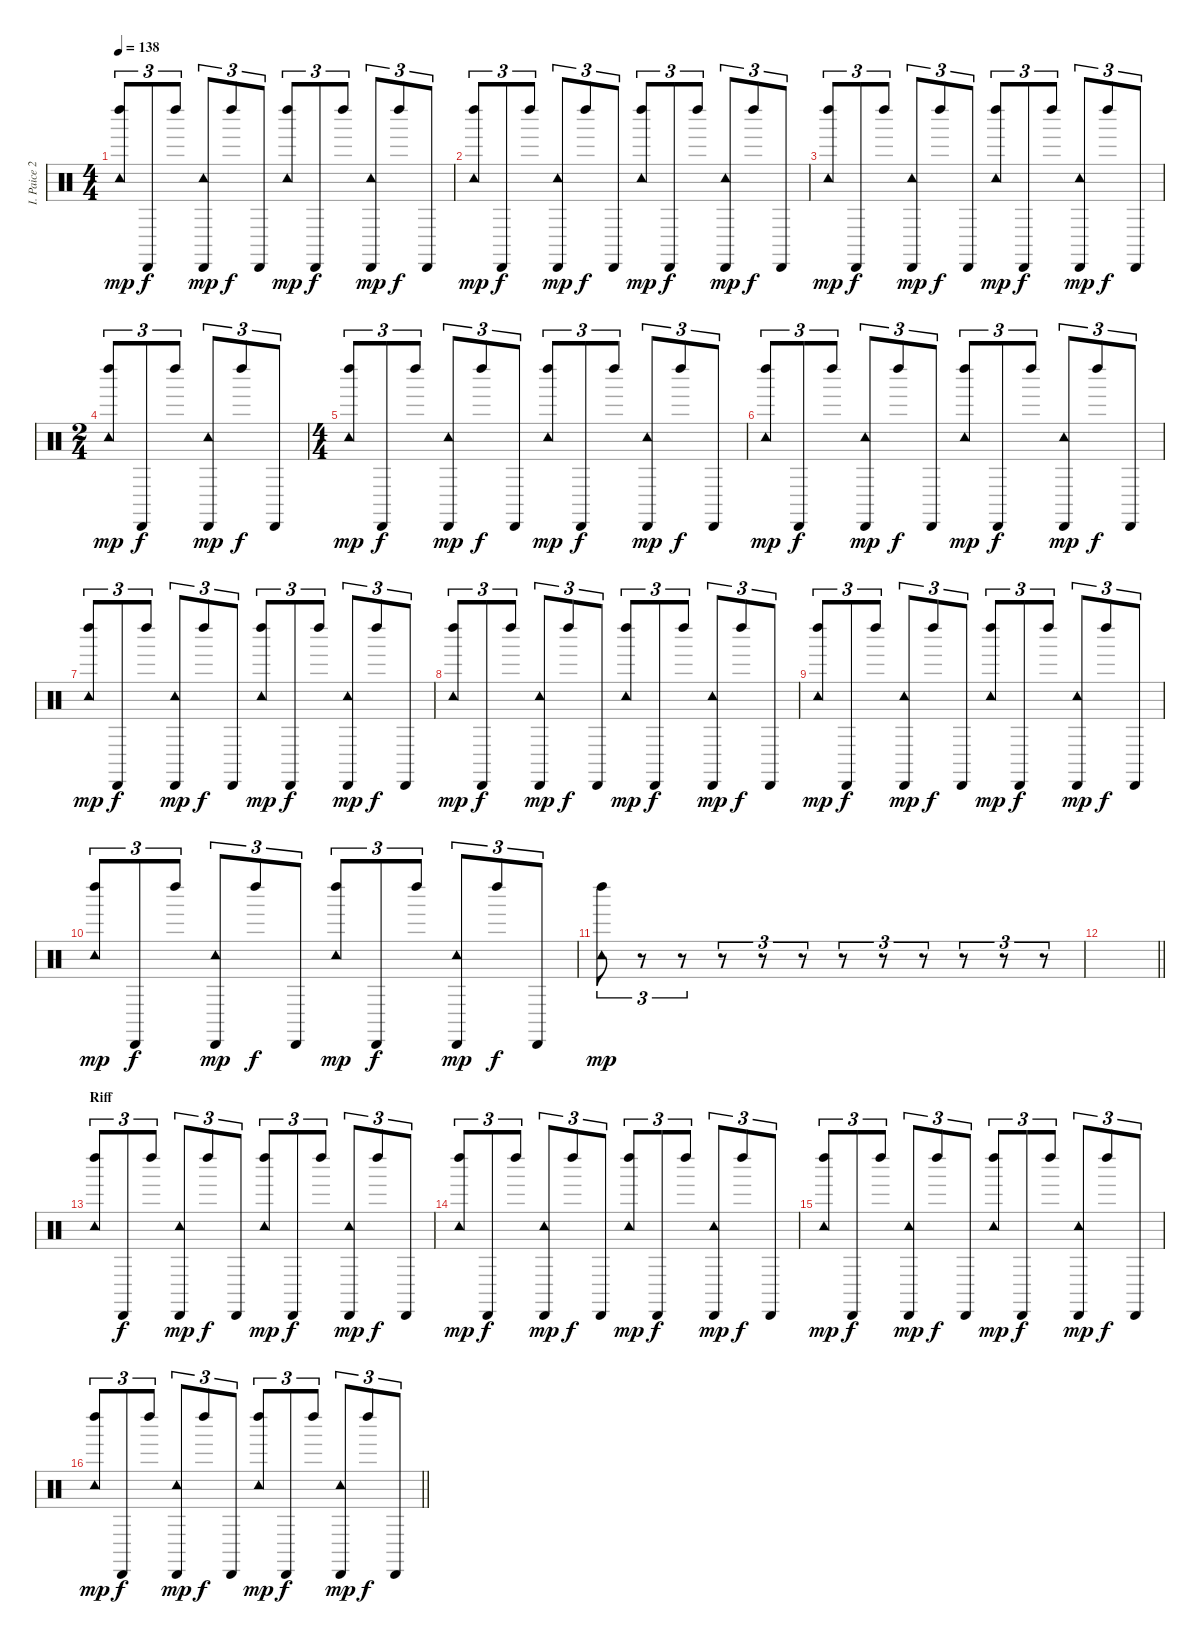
\track ("I. Paice 2" "I. Paice 2") {instrument percussion}
\staff {score}
\articulation defaults
\ts (4 4)
\tempo 138
\clef neutral
\ks c
("Tambourine (hit)" "Left Maraca (hit)").8{tu (3 2) dy mp} "Cabasa (hit)".8{tu (3 2) dy f} "Left Maraca (hit)".8{tu (3 2)} ("Tambourine (hit)" "Cabasa (hit)").8{tu (3 2) dy mp} "Left Maraca (hit)".8{tu (3 2) dy f} "Cabasa (hit)".8{tu (3 2)} ("Tambourine (hit)" "Left Maraca (hit)").8{tu (3 2) dy mp} "Cabasa (hit)".8{tu (3 2) dy f} "Left Maraca (hit)".8{tu (3 2)} ("Tambourine (hit)" "Cabasa (hit)").8{tu (3 2) dy mp} "Left Maraca (hit)".8{tu (3 2) dy f} "Cabasa (hit)".8{tu (3 2)} |
("Tambourine (hit)" "Left Maraca (hit)").8{tu (3 2) dy mp} "Cabasa (hit)".8{tu (3 2) dy f} "Left Maraca (hit)".8{tu (3 2)} ("Tambourine (hit)" "Cabasa (hit)").8{tu (3 2) dy mp} "Left Maraca (hit)".8{tu (3 2) dy f} "Cabasa (hit)".8{tu (3 2)} ("Tambourine (hit)" "Left Maraca (hit)").8{tu (3 2) dy mp} "Cabasa (hit)".8{tu (3 2) dy f} "Left Maraca (hit)".8{tu (3 2)} ("Tambourine (hit)" "Cabasa (hit)").8{tu (3 2) dy mp} "Left Maraca (hit)".8{tu (3 2) dy f} "Cabasa (hit)".8{tu (3 2)} |
("Tambourine (hit)" "Left Maraca (hit)").8{tu (3 2) dy mp} "Cabasa (hit)".8{tu (3 2) dy f} "Left Maraca (hit)".8{tu (3 2)} ("Tambourine (hit)" "Cabasa (hit)").8{tu (3 2) dy mp} "Left Maraca (hit)".8{tu (3 2) dy f} "Cabasa (hit)".8{tu (3 2)} ("Tambourine (hit)" "Left Maraca (hit)").8{tu (3 2) dy mp} "Cabasa (hit)".8{tu (3 2) dy f} "Left Maraca (hit)".8{tu (3 2)} ("Tambourine (hit)" "Cabasa (hit)").8{tu (3 2) dy mp} "Left Maraca (hit)".8{tu (3 2) dy f} "Cabasa (hit)".8{tu (3 2)} |
\ts (2 4)
("Tambourine (hit)" "Left Maraca (hit)").8{tu (3 2) dy mp} "Cabasa (hit)".8{tu (3 2) dy f} "Left Maraca (hit)".8{tu (3 2)} ("Tambourine (hit)" "Cabasa (hit)").8{tu (3 2) dy mp} "Left Maraca (hit)".8{tu (3 2) dy f} "Cabasa (hit)".8{tu (3 2)} |
\ts (4 4)
("Tambourine (hit)" "Left Maraca (hit)").8{tu (3 2) dy mp} "Cabasa (hit)".8{tu (3 2) dy f} "Left Maraca (hit)".8{tu (3 2)} ("Tambourine (hit)" "Cabasa (hit)").8{tu (3 2) dy mp} "Left Maraca (hit)".8{tu (3 2) dy f} "Cabasa (hit)".8{tu (3 2)} ("Tambourine (hit)" "Left Maraca (hit)").8{tu (3 2) dy mp} "Cabasa (hit)".8{tu (3 2) dy f} "Left Maraca (hit)".8{tu (3 2)} ("Tambourine (hit)" "Cabasa (hit)").8{tu (3 2) dy mp} "Left Maraca (hit)".8{tu (3 2) dy f} "Cabasa (hit)".8{tu (3 2)} |
("Tambourine (hit)" "Left Maraca (hit)").8{tu (3 2) dy mp} "Cabasa (hit)".8{tu (3 2) dy f} "Left Maraca (hit)".8{tu (3 2)} ("Tambourine (hit)" "Cabasa (hit)").8{tu (3 2) dy mp} "Left Maraca (hit)".8{tu (3 2) dy f} "Cabasa (hit)".8{tu (3 2)} ("Tambourine (hit)" "Left Maraca (hit)").8{tu (3 2) dy mp} "Cabasa (hit)".8{tu (3 2) dy f} "Left Maraca (hit)".8{tu (3 2)} ("Tambourine (hit)" "Cabasa (hit)").8{tu (3 2) dy mp} "Left Maraca (hit)".8{tu (3 2) dy f} "Cabasa (hit)".8{tu (3 2)} |
("Tambourine (hit)" "Left Maraca (hit)").8{tu (3 2) dy mp} "Cabasa (hit)".8{tu (3 2) dy f} "Left Maraca (hit)".8{tu (3 2)} ("Tambourine (hit)" "Cabasa (hit)").8{tu (3 2) dy mp} "Left Maraca (hit)".8{tu (3 2) dy f} "Cabasa (hit)".8{tu (3 2)} ("Tambourine (hit)" "Left Maraca (hit)").8{tu (3 2) dy mp} "Cabasa (hit)".8{tu (3 2) dy f} "Left Maraca (hit)".8{tu (3 2)} ("Tambourine (hit)" "Cabasa (hit)").8{tu (3 2) dy mp} "Left Maraca (hit)".8{tu (3 2) dy f} "Cabasa (hit)".8{tu (3 2)} |
("Tambourine (hit)" "Left Maraca (hit)").8{tu (3 2) dy mp} "Cabasa (hit)".8{tu (3 2) dy f} "Left Maraca (hit)".8{tu (3 2)} ("Tambourine (hit)" "Cabasa (hit)").8{tu (3 2) dy mp} "Left Maraca (hit)".8{tu (3 2) dy f} "Cabasa (hit)".8{tu (3 2)} ("Tambourine (hit)" "Left Maraca (hit)").8{tu (3 2) dy mp} "Cabasa (hit)".8{tu (3 2) dy f} "Left Maraca (hit)".8{tu (3 2)} ("Tambourine (hit)" "Cabasa (hit)").8{tu (3 2) dy mp} "Left Maraca (hit)".8{tu (3 2) dy f} "Cabasa (hit)".8{tu (3 2)} |
("Tambourine (hit)" "Left Maraca (hit)").8{tu (3 2) dy mp} "Cabasa (hit)".8{tu (3 2) dy f} "Left Maraca (hit)".8{tu (3 2)} ("Tambourine (hit)" "Cabasa (hit)").8{tu (3 2) dy mp} "Left Maraca (hit)".8{tu (3 2) dy f} "Cabasa (hit)".8{tu (3 2)} ("Tambourine (hit)" "Left Maraca (hit)").8{tu (3 2) dy mp} "Cabasa (hit)".8{tu (3 2) dy f} "Left Maraca (hit)".8{tu (3 2)} ("Tambourine (hit)" "Cabasa (hit)").8{tu (3 2) dy mp} "Left Maraca (hit)".8{tu (3 2) dy f} "Cabasa (hit)".8{tu (3 2)} |
("Tambourine (hit)" "Left Maraca (hit)").8{tu (3 2) dy mp} "Cabasa (hit)".8{tu (3 2) dy f} "Left Maraca (hit)".8{tu (3 2)} ("Tambourine (hit)" "Cabasa (hit)").8{tu (3 2) dy mp} "Left Maraca (hit)".8{tu (3 2) dy f} "Cabasa (hit)".8{tu (3 2)} ("Tambourine (hit)" "Left Maraca (hit)").8{tu (3 2) dy mp} "Cabasa (hit)".8{tu (3 2) dy f} "Left Maraca (hit)".8{tu (3 2)} ("Tambourine (hit)" "Cabasa (hit)").8{tu (3 2) dy mp} "Left Maraca (hit)".8{tu (3 2) dy f} "Cabasa (hit)".8{tu (3 2)} |
("Tambourine (hit)" "Left Maraca (hit)").8{tu (3 2) dy mp} r.8{tu (3 2)} r.8{tu (3 2)} r.8{tu (3 2)} r.8{tu (3 2)} r.8{tu (3 2)} r.8{tu (3 2)} r.8{tu (3 2)} r.8{tu (3 2)} r.8{tu (3 2)} r.8{tu (3 2)} r.8{tu (3 2)} |
\barLineRight lightlight
|
\section ("" "Riff")
("Tambourine (hit)" "Left Maraca (hit)").8{tu (3 2)} "Cabasa (hit)".8{tu (3 2) dy f} "Left Maraca (hit)".8{tu (3 2)} ("Tambourine (hit)" "Cabasa (hit)").8{tu (3 2) dy mp} "Left Maraca (hit)".8{tu (3 2) dy f} "Cabasa (hit)".8{tu (3 2)} ("Tambourine (hit)" "Left Maraca (hit)").8{tu (3 2) dy mp} "Cabasa (hit)".8{tu (3 2) dy f} "Left Maraca (hit)".8{tu (3 2)} ("Tambourine (hit)" "Cabasa (hit)").8{tu (3 2) dy mp} "Left Maraca (hit)".8{tu (3 2) dy f} "Cabasa (hit)".8{tu (3 2)} |
("Tambourine (hit)" "Left Maraca (hit)").8{tu (3 2) dy mp} "Cabasa (hit)".8{tu (3 2) dy f} "Left Maraca (hit)".8{tu (3 2)} ("Tambourine (hit)" "Cabasa (hit)").8{tu (3 2) dy mp} "Left Maraca (hit)".8{tu (3 2) dy f} "Cabasa (hit)".8{tu (3 2)} ("Tambourine (hit)" "Left Maraca (hit)").8{tu (3 2) dy mp} "Cabasa (hit)".8{tu (3 2) dy f} "Left Maraca (hit)".8{tu (3 2)} ("Tambourine (hit)" "Cabasa (hit)").8{tu (3 2) dy mp} "Left Maraca (hit)".8{tu (3 2) dy f} "Cabasa (hit)".8{tu (3 2)} |
("Tambourine (hit)" "Left Maraca (hit)").8{tu (3 2) dy mp} "Cabasa (hit)".8{tu (3 2) dy f} "Left Maraca (hit)".8{tu (3 2)} ("Tambourine (hit)" "Cabasa (hit)").8{tu (3 2) dy mp} "Left Maraca (hit)".8{tu (3 2) dy f} "Cabasa (hit)".8{tu (3 2)} ("Tambourine (hit)" "Left Maraca (hit)").8{tu (3 2) dy mp} "Cabasa (hit)".8{tu (3 2) dy f} "Left Maraca (hit)".8{tu (3 2)} ("Tambourine (hit)" "Cabasa (hit)").8{tu (3 2) dy mp} "Left Maraca (hit)".8{tu (3 2) dy f} "Cabasa (hit)".8{tu (3 2)} |
\barLineRight lightlight
("Tambourine (hit)" "Left Maraca (hit)").8{tu (3 2) dy mp} "Cabasa (hit)".8{tu (3 2) dy f} "Left Maraca (hit)".8{tu (3 2)} ("Tambourine (hit)" "Cabasa (hit)").8{tu (3 2) dy mp} "Left Maraca (hit)".8{tu (3 2) dy f} "Cabasa (hit)".8{tu (3 2)} ("Tambourine (hit)" "Left Maraca (hit)").8{tu (3 2) dy mp} "Cabasa (hit)".8{tu (3 2) dy f} "Left Maraca (hit)".8{tu (3 2)} ("Tambourine (hit)" "Cabasa (hit)").8{tu (3 2) dy mp} "Left Maraca (hit)".8{tu (3 2) dy f} "Cabasa (hit)".8{tu (3 2)}
